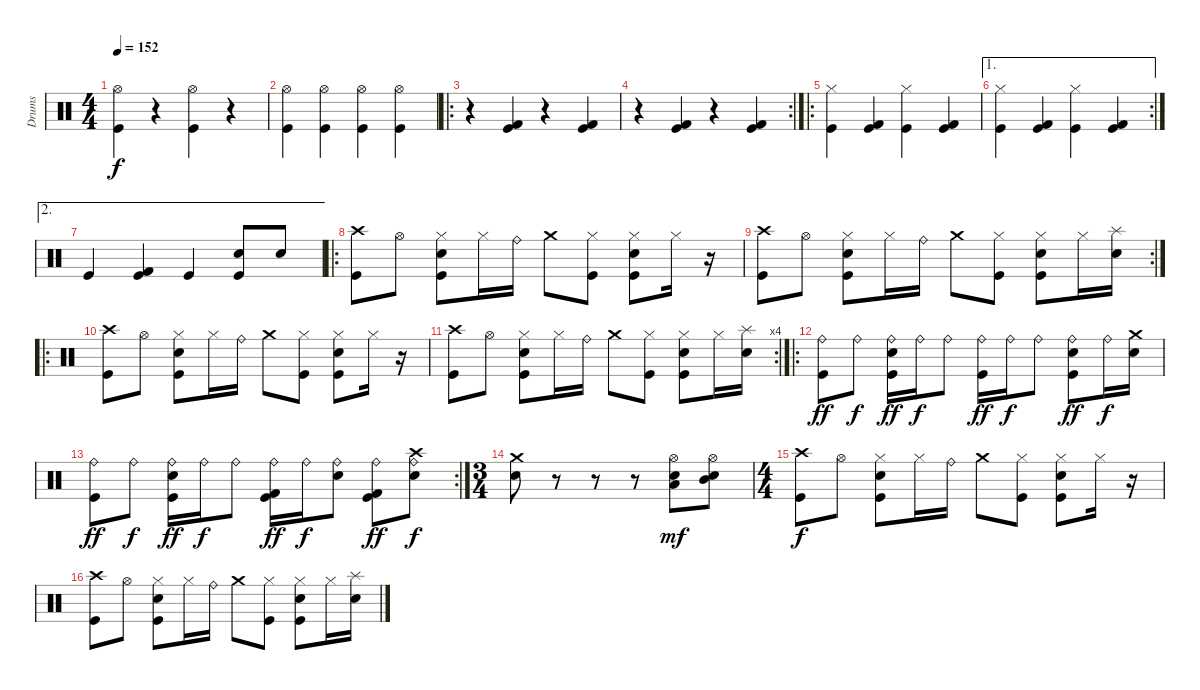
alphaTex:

\track ("Drums" "Drums") {instrument percussion}
\staff {score}
\articulation defaults
\ts (4 4)
\tempo 152
\clef neutral
\ks c
("Kick (hit)" "Hi-Hat (open)").4{dy f} r.4 ("Kick (hit)" "Hi-Hat (open)").4 r.4 |
("Kick (hit)" "Hi-Hat (open)").4 ("Kick (hit)" "Hi-Hat (open)").4 ("Kick (hit)" "Hi-Hat (open)").4 ("Kick (hit)" "Hi-Hat (open)").4 |
\ro
r.4 ("Kick (hit)" "Kick (hit) 2").4 r.4 ("Kick (hit)" "Kick (hit) 2").4 |
\rc 2
r.4 ("Kick (hit)" "Kick (hit) 2").4 r.4 ("Kick (hit)" "Kick (hit) 2").4 |
\ro
("Kick (hit)" "Hi-Hat (closed)").4 ("Kick (hit)" "Kick (hit) 2").4 ("Kick (hit)" "Hi-Hat (closed)").4 ("Kick (hit)" "Kick (hit) 2").4 |
\ae 1
\rc 2
("Kick (hit)" "Hi-Hat (closed)").4 ("Kick (hit)" "Kick (hit) 2").4 ("Kick (hit)" "Hi-Hat (closed)").4 ("Kick (hit)" "Kick (hit) 2").4 |
\ae 2 "Kick (hit)".4
("Kick (hit)" "Kick (hit) 2").4 "Kick (hit)".4 ("Kick (hit)" "Electric Snare (hit)").8 "Electric Snare (hit)".8 |
\ro
("Crash high (hit)" "Kick (hit)").8 "Hi-Hat (open)".8 ("Hi-Hat (closed)" "Electric Snare (hit)" "Kick (hit)").8 "Hi-Hat (closed)".16 "Ride (bell)".16 "Crash medium (hit)".8 ("Hi-Hat (closed)" "Kick (hit)").8 ("Hi-Hat (closed)" "Electric Snare (hit)" "Kick (hit)").8 "Hi-Hat (closed)".16 r.16 |
\rc 2
("Crash high (hit)" "Kick (hit)").8 "Hi-Hat (open)".8 ("Hi-Hat (closed)" "Electric Snare (hit)" "Kick (hit)").8 "Hi-Hat (closed)".16 "Ride (bell)".16 "Crash medium (hit)".8 ("Hi-Hat (closed)" "Kick (hit)").8 ("Hi-Hat (closed)" "Electric Snare (hit)" "Kick (hit)").8 "Hi-Hat (closed)".16 ("Splash (hit)" "Electric Snare (hit)").16 |
\ro
("Crash high (hit)" "Kick (hit)").8 "Hi-Hat (open)".8 ("Hi-Hat (closed)" "Electric Snare (hit)" "Kick (hit)").8 "Hi-Hat (closed)".16 "Ride (bell)".16 "Crash medium (hit)".8 ("Hi-Hat (closed)" "Kick (hit)").8 ("Hi-Hat (closed)" "Electric Snare (hit)" "Kick (hit)").8 "Hi-Hat (closed)".16 r.16 |
\rc 4
("Crash high (hit)" "Kick (hit)").8 "Hi-Hat (open)".8 ("Hi-Hat (closed)" "Electric Snare (hit)" "Kick (hit)").8 "Hi-Hat (closed)".16 "Ride (bell)".16 "Crash medium (hit)".8 ("Hi-Hat (closed)" "Kick (hit)").8 ("Hi-Hat (closed)" "Electric Snare (hit)" "Kick (hit)").8 "Hi-Hat (closed)".16 ("Splash (hit)" "Electric Snare (hit)").16 |
\ro
("Ride (bell)" "Kick (hit)").8{dy ff} "Ride (bell)".8{dy f} ("Ride (bell)" "Electric Snare (hit)" "Kick (hit)").16{dy ff} "Ride (bell)".16{dy f} "Ride (bell)".8 ("Ride (bell)" "Kick (hit)").16{dy ff} "Ride (bell)".16{dy f} "Ride (bell)".8 ("Ride (bell)" "Electric Snare (hit)" "Kick (hit)").8{dy ff} "Ride (bell)".16{dy f} ("Crash medium (hit)" "Electric Snare (hit)").16 |
\rc 2
("Ride (bell)" "Kick (hit)").8{dy ff} "Ride (bell)".8{dy f} ("Ride (bell)" "Electric Snare (hit)" "Kick (hit)").16{dy ff} "Ride (bell)".16{dy f} "Ride (bell)".8 ("Ride (bell)" "Kick (hit) 2" "Kick (hit)").16{dy ff} "Ride (bell)".16{dy f} ("Ride (bell)" "Electric Snare (hit)").8 ("Ride (bell)" "Kick (hit) 2" "Kick (hit)").8{dy ff} ("Ride (bell)" "Crash high (hit)" "Electric Snare (hit)").8{dy f} |
\ts (3 4)
("Electric Snare (hit)" "Crash medium (hit)").8 r.8 r.8 r.8 ("Low Tom (hit)" "Hi-Hat (open)" "Electric Snare (hit)").8{dy mf} ("Mid Tom (hit)" "Hi-Hat (open)" "Electric Snare (hit)").8 |
\ts (4 4)
("Crash high (hit)" "Kick (hit)").8{dy f} "Hi-Hat (open)".8 ("Hi-Hat (closed)" "Electric Snare (hit)" "Kick (hit)").8 "Hi-Hat (closed)".16 "Ride (bell)".16 "Crash medium (hit)".8 ("Hi-Hat (closed)" "Kick (hit)").8 ("Hi-Hat (closed)" "Electric Snare (hit)" "Kick (hit)").8 "Hi-Hat (closed)".16 r.16 |
("Crash high (hit)" "Kick (hit)").8 "Hi-Hat (open)".8 ("Hi-Hat (closed)" "Electric Snare (hit)" "Kick (hit)").8 "Hi-Hat (closed)".16 "Ride (bell)".16 "Crash medium (hit)".8 ("Hi-Hat (closed)" "Kick (hit)").8 ("Hi-Hat (closed)" "Electric Snare (hit)" "Kick (hit)").8 "Hi-Hat (closed)".16 ("Splash (hit)" "Electric Snare (hit)").16
